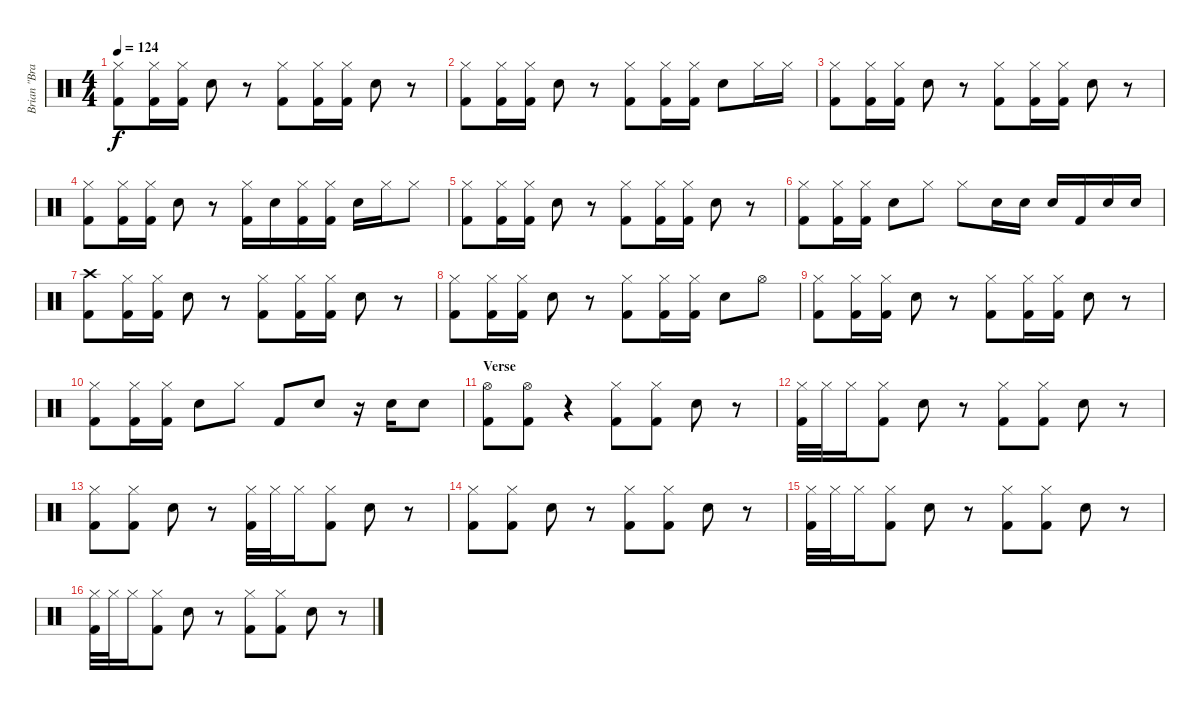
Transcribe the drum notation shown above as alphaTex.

\track ("Brian \"Brain\" Mantia / Drums" "Brian \"Bra") {instrument percussion}
\staff {score}
\articulation defaults
\ts (4 4)
\tempo 124
\clef neutral
\ks c
("Hi-Hat (closed)" "Kick (hit) 2").8{dy f} ("Hi-Hat (closed)" "Kick (hit) 2").16 ("Hi-Hat (closed)" "Kick (hit) 2").16 "Electric Snare (hit)".8 r.8 ("Hi-Hat (closed)" "Kick (hit) 2").8 ("Hi-Hat (closed)" "Kick (hit) 2").16 ("Hi-Hat (closed)" "Kick (hit) 2").16 "Electric Snare (hit)".8 r.8 |
("Hi-Hat (closed)" "Kick (hit) 2").8 ("Hi-Hat (closed)" "Kick (hit) 2").16 ("Hi-Hat (closed)" "Kick (hit) 2").16 "Electric Snare (hit)".8 r.8 ("Hi-Hat (closed)" "Kick (hit) 2").8 ("Hi-Hat (closed)" "Kick (hit) 2").16 ("Hi-Hat (closed)" "Kick (hit) 2").16 "Electric Snare (hit)".8 "Hi-Hat (closed)".16 "Hi-Hat (closed)".16 |
("Hi-Hat (closed)" "Kick (hit) 2").8 ("Hi-Hat (closed)" "Kick (hit) 2").16 ("Hi-Hat (closed)" "Kick (hit) 2").16 "Electric Snare (hit)".8 r.8 ("Hi-Hat (closed)" "Kick (hit) 2").8 ("Hi-Hat (closed)" "Kick (hit) 2").16 ("Hi-Hat (closed)" "Kick (hit) 2").16 "Electric Snare (hit)".8 r.8 |
("Hi-Hat (closed)" "Kick (hit) 2").8 ("Hi-Hat (closed)" "Kick (hit) 2").16 ("Hi-Hat (closed)" "Kick (hit) 2").16 "Electric Snare (hit)".8 r.8 ("Hi-Hat (closed)" "Kick (hit) 2").16 "Electric Snare (hit)".16 ("Hi-Hat (closed)" "Kick (hit) 2").16 ("Hi-Hat (closed)" "Kick (hit) 2").16 "Electric Snare (hit)".16 "Hi-Hat (closed)".16 "Hi-Hat (closed)".8 |
("Hi-Hat (closed)" "Kick (hit) 2").8 ("Hi-Hat (closed)" "Kick (hit) 2").16 ("Hi-Hat (closed)" "Kick (hit) 2").16 "Electric Snare (hit)".8 r.8 ("Hi-Hat (closed)" "Kick (hit) 2").8 ("Hi-Hat (closed)" "Kick (hit) 2").16 ("Hi-Hat (closed)" "Kick (hit) 2").16 "Electric Snare (hit)".8 r.8 |
("Hi-Hat (closed)" "Kick (hit) 2").8 ("Hi-Hat (closed)" "Kick (hit) 2").16 ("Hi-Hat (closed)" "Kick (hit) 2").16 "Electric Snare (hit)".8 "Hi-Hat (closed)".8 "Hi-Hat (closed)".8 "Electric Snare (hit)".16 "Electric Snare (hit)".16 "Electric Snare (hit)".16 "Kick (hit) 2".16 "Electric Snare (hit)".16 "Electric Snare (hit)".16 |
("Crash high (hit)" "Kick (hit) 2").8 ("Hi-Hat (closed)" "Kick (hit) 2").16 ("Hi-Hat (closed)" "Kick (hit) 2").16 "Electric Snare (hit)".8 r.8 ("Hi-Hat (closed)" "Kick (hit) 2").8 ("Hi-Hat (closed)" "Kick (hit) 2").16 ("Hi-Hat (closed)" "Kick (hit) 2").16 "Electric Snare (hit)".8 r.8 |
("Hi-Hat (closed)" "Kick (hit) 2").8 ("Hi-Hat (closed)" "Kick (hit) 2").16 ("Hi-Hat (closed)" "Kick (hit) 2").16 "Electric Snare (hit)".8 r.8 ("Hi-Hat (closed)" "Kick (hit) 2").8 ("Hi-Hat (closed)" "Kick (hit) 2").16 ("Hi-Hat (closed)" "Kick (hit) 2").16 "Electric Snare (hit)".8 "Hi-Hat (open)".8 |
("Hi-Hat (closed)" "Kick (hit) 2").8 ("Hi-Hat (closed)" "Kick (hit) 2").16 ("Hi-Hat (closed)" "Kick (hit) 2").16 "Electric Snare (hit)".8 r.8 ("Hi-Hat (closed)" "Kick (hit) 2").8 ("Hi-Hat (closed)" "Kick (hit) 2").16 ("Hi-Hat (closed)" "Kick (hit) 2").16 "Electric Snare (hit)".8 r.8 |
("Hi-Hat (closed)" "Kick (hit) 2").8 ("Hi-Hat (closed)" "Kick (hit) 2").16 ("Hi-Hat (closed)" "Kick (hit) 2").16 "Electric Snare (hit)".8 "Hi-Hat (closed)".8 "Kick (hit) 2".8 "Electric Snare (hit)".8 r.16 "Electric Snare (hit)".16 "Electric Snare (hit)".8 |
\section ("" "Verse")
("Hi-Hat (open)" "Kick (hit) 2").8 ("Hi-Hat (open)" "Kick (hit) 2").8 r.4 ("Hi-Hat (closed)" "Kick (hit) 2").8 ("Hi-Hat (closed)" "Kick (hit) 2").8 "Electric Snare (hit)".8 r.8 |
("Hi-Hat (closed)" "Kick (hit) 2").32 "Hi-Hat (closed)".32 "Hi-Hat (closed)".16 ("Hi-Hat (closed)" "Kick (hit) 2").8 "Electric Snare (hit)".8 r.8 ("Hi-Hat (closed)" "Kick (hit) 2").8 ("Hi-Hat (closed)" "Kick (hit) 2").8 "Electric Snare (hit)".8 r.8 |
("Hi-Hat (closed)" "Kick (hit) 2").8 ("Hi-Hat (closed)" "Kick (hit) 2").8 "Electric Snare (hit)".8 r.8 ("Hi-Hat (closed)" "Kick (hit) 2").32 "Hi-Hat (closed)".32 "Hi-Hat (closed)".16 ("Hi-Hat (closed)" "Kick (hit) 2").8 "Electric Snare (hit)".8 r.8 |
("Hi-Hat (closed)" "Kick (hit) 2").8 ("Hi-Hat (closed)" "Kick (hit) 2").8 "Electric Snare (hit)".8 r.8 ("Hi-Hat (closed)" "Kick (hit) 2").8 ("Hi-Hat (closed)" "Kick (hit) 2").8 "Electric Snare (hit)".8 r.8 |
("Hi-Hat (closed)" "Kick (hit) 2").32 "Hi-Hat (closed)".32 "Hi-Hat (closed)".16 ("Hi-Hat (closed)" "Kick (hit) 2").8 "Electric Snare (hit)".8 r.8 ("Hi-Hat (closed)" "Kick (hit) 2").8 ("Hi-Hat (closed)" "Kick (hit) 2").8 "Electric Snare (hit)".8 r.8 |
("Hi-Hat (closed)" "Kick (hit) 2").32 "Hi-Hat (closed)".32 "Hi-Hat (closed)".16 ("Hi-Hat (closed)" "Kick (hit) 2").8 "Electric Snare (hit)".8 r.8 ("Hi-Hat (closed)" "Kick (hit) 2").8 ("Hi-Hat (closed)" "Kick (hit) 2").8 "Electric Snare (hit)".8 r.8
